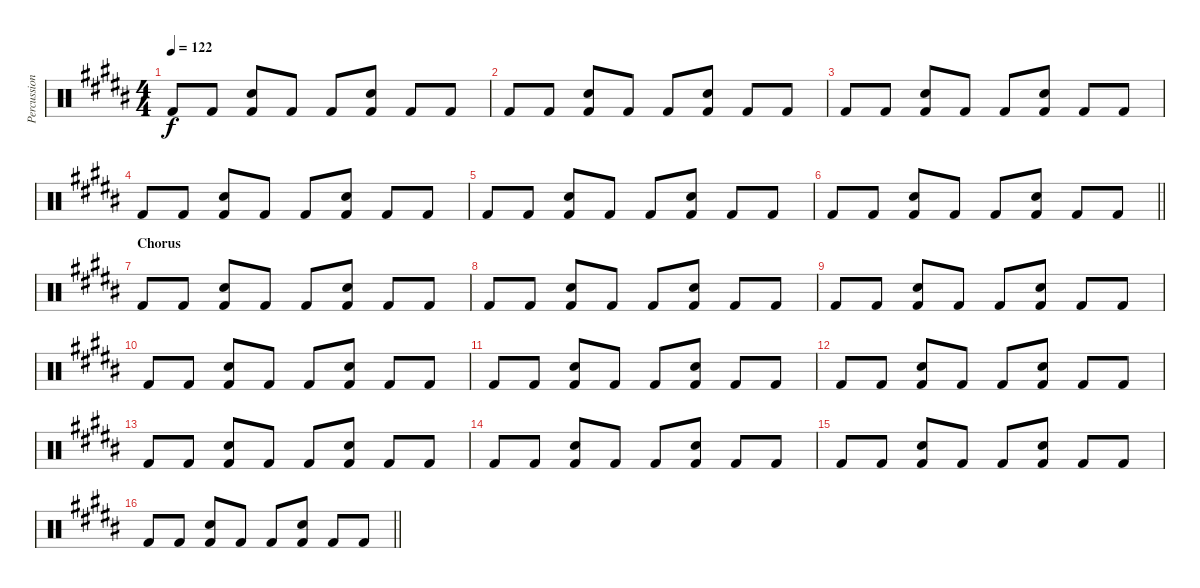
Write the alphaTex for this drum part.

\track ("Percussion" "Percussion") {instrument percussion}
\staff {score}
\articulation defaults
\ts (4 4)
\tempo 122
\clef neutral
\ks b "Kick (hit) 2".8{dy f} "Kick (hit) 2".8
("Kick (hit) 2" "Snare (hit) 2").8 "Kick (hit) 2".8 "Kick (hit) 2".8 ("Kick (hit) 2" "Snare (hit) 2").8 "Kick (hit) 2".8 "Kick (hit) 2".8 |
"Kick (hit) 2".8 "Kick (hit) 2".8 ("Kick (hit) 2" "Snare (hit) 2").8 "Kick (hit) 2".8 "Kick (hit) 2".8 ("Kick (hit) 2" "Snare (hit) 2").8 "Kick (hit) 2".8 "Kick (hit) 2".8 |
"Kick (hit) 2".8 "Kick (hit) 2".8 ("Kick (hit) 2" "Snare (hit) 2").8 "Kick (hit) 2".8 "Kick (hit) 2".8 ("Kick (hit) 2" "Snare (hit) 2").8 "Kick (hit) 2".8 "Kick (hit) 2".8 |
"Kick (hit) 2".8 "Kick (hit) 2".8 ("Kick (hit) 2" "Snare (hit) 2").8 "Kick (hit) 2".8 "Kick (hit) 2".8 ("Kick (hit) 2" "Snare (hit) 2").8 "Kick (hit) 2".8 "Kick (hit) 2".8 |
"Kick (hit) 2".8 "Kick (hit) 2".8 ("Kick (hit) 2" "Snare (hit) 2").8 "Kick (hit) 2".8 "Kick (hit) 2".8 ("Kick (hit) 2" "Snare (hit) 2").8 "Kick (hit) 2".8 "Kick (hit) 2".8 |
\barLineRight lightlight "Kick (hit) 2".8 "Kick (hit) 2".8
("Kick (hit) 2" "Snare (hit) 2").8 "Kick (hit) 2".8 "Kick (hit) 2".8 ("Kick (hit) 2" "Snare (hit) 2").8 "Kick (hit) 2".8 "Kick (hit) 2".8 |
\section ("" "Chorus")
"Kick (hit) 2".8 "Kick (hit) 2".8 ("Kick (hit) 2" "Snare (hit) 2").8 "Kick (hit) 2".8 "Kick (hit) 2".8 ("Kick (hit) 2" "Snare (hit) 2").8 "Kick (hit) 2".8 "Kick (hit) 2".8 |
"Kick (hit) 2".8 "Kick (hit) 2".8 ("Kick (hit) 2" "Snare (hit) 2").8 "Kick (hit) 2".8 "Kick (hit) 2".8 ("Kick (hit) 2" "Snare (hit) 2").8 "Kick (hit) 2".8 "Kick (hit) 2".8 |
"Kick (hit) 2".8 "Kick (hit) 2".8 ("Kick (hit) 2" "Snare (hit) 2").8 "Kick (hit) 2".8 "Kick (hit) 2".8 ("Kick (hit) 2" "Snare (hit) 2").8 "Kick (hit) 2".8 "Kick (hit) 2".8 |
"Kick (hit) 2".8 "Kick (hit) 2".8 ("Kick (hit) 2" "Snare (hit) 2").8 "Kick (hit) 2".8 "Kick (hit) 2".8 ("Kick (hit) 2" "Snare (hit) 2").8 "Kick (hit) 2".8 "Kick (hit) 2".8 |
"Kick (hit) 2".8 "Kick (hit) 2".8 ("Kick (hit) 2" "Snare (hit) 2").8 "Kick (hit) 2".8 "Kick (hit) 2".8 ("Kick (hit) 2" "Snare (hit) 2").8 "Kick (hit) 2".8 "Kick (hit) 2".8 |
"Kick (hit) 2".8 "Kick (hit) 2".8 ("Kick (hit) 2" "Snare (hit) 2").8 "Kick (hit) 2".8 "Kick (hit) 2".8 ("Kick (hit) 2" "Snare (hit) 2").8 "Kick (hit) 2".8 "Kick (hit) 2".8 |
"Kick (hit) 2".8 "Kick (hit) 2".8 ("Kick (hit) 2" "Snare (hit) 2").8 "Kick (hit) 2".8 "Kick (hit) 2".8 ("Kick (hit) 2" "Snare (hit) 2").8 "Kick (hit) 2".8 "Kick (hit) 2".8 |
"Kick (hit) 2".8 "Kick (hit) 2".8 ("Kick (hit) 2" "Snare (hit) 2").8 "Kick (hit) 2".8 "Kick (hit) 2".8 ("Kick (hit) 2" "Snare (hit) 2").8 "Kick (hit) 2".8 "Kick (hit) 2".8 |
"Kick (hit) 2".8 "Kick (hit) 2".8 ("Kick (hit) 2" "Snare (hit) 2").8 "Kick (hit) 2".8 "Kick (hit) 2".8 ("Kick (hit) 2" "Snare (hit) 2").8 "Kick (hit) 2".8 "Kick (hit) 2".8 |
\barLineRight lightlight "Kick (hit) 2".8 "Kick (hit) 2".8
("Kick (hit) 2" "Snare (hit) 2").8 "Kick (hit) 2".8 "Kick (hit) 2".8 ("Kick (hit) 2" "Snare (hit) 2").8 "Kick (hit) 2".8 "Kick (hit) 2".8
